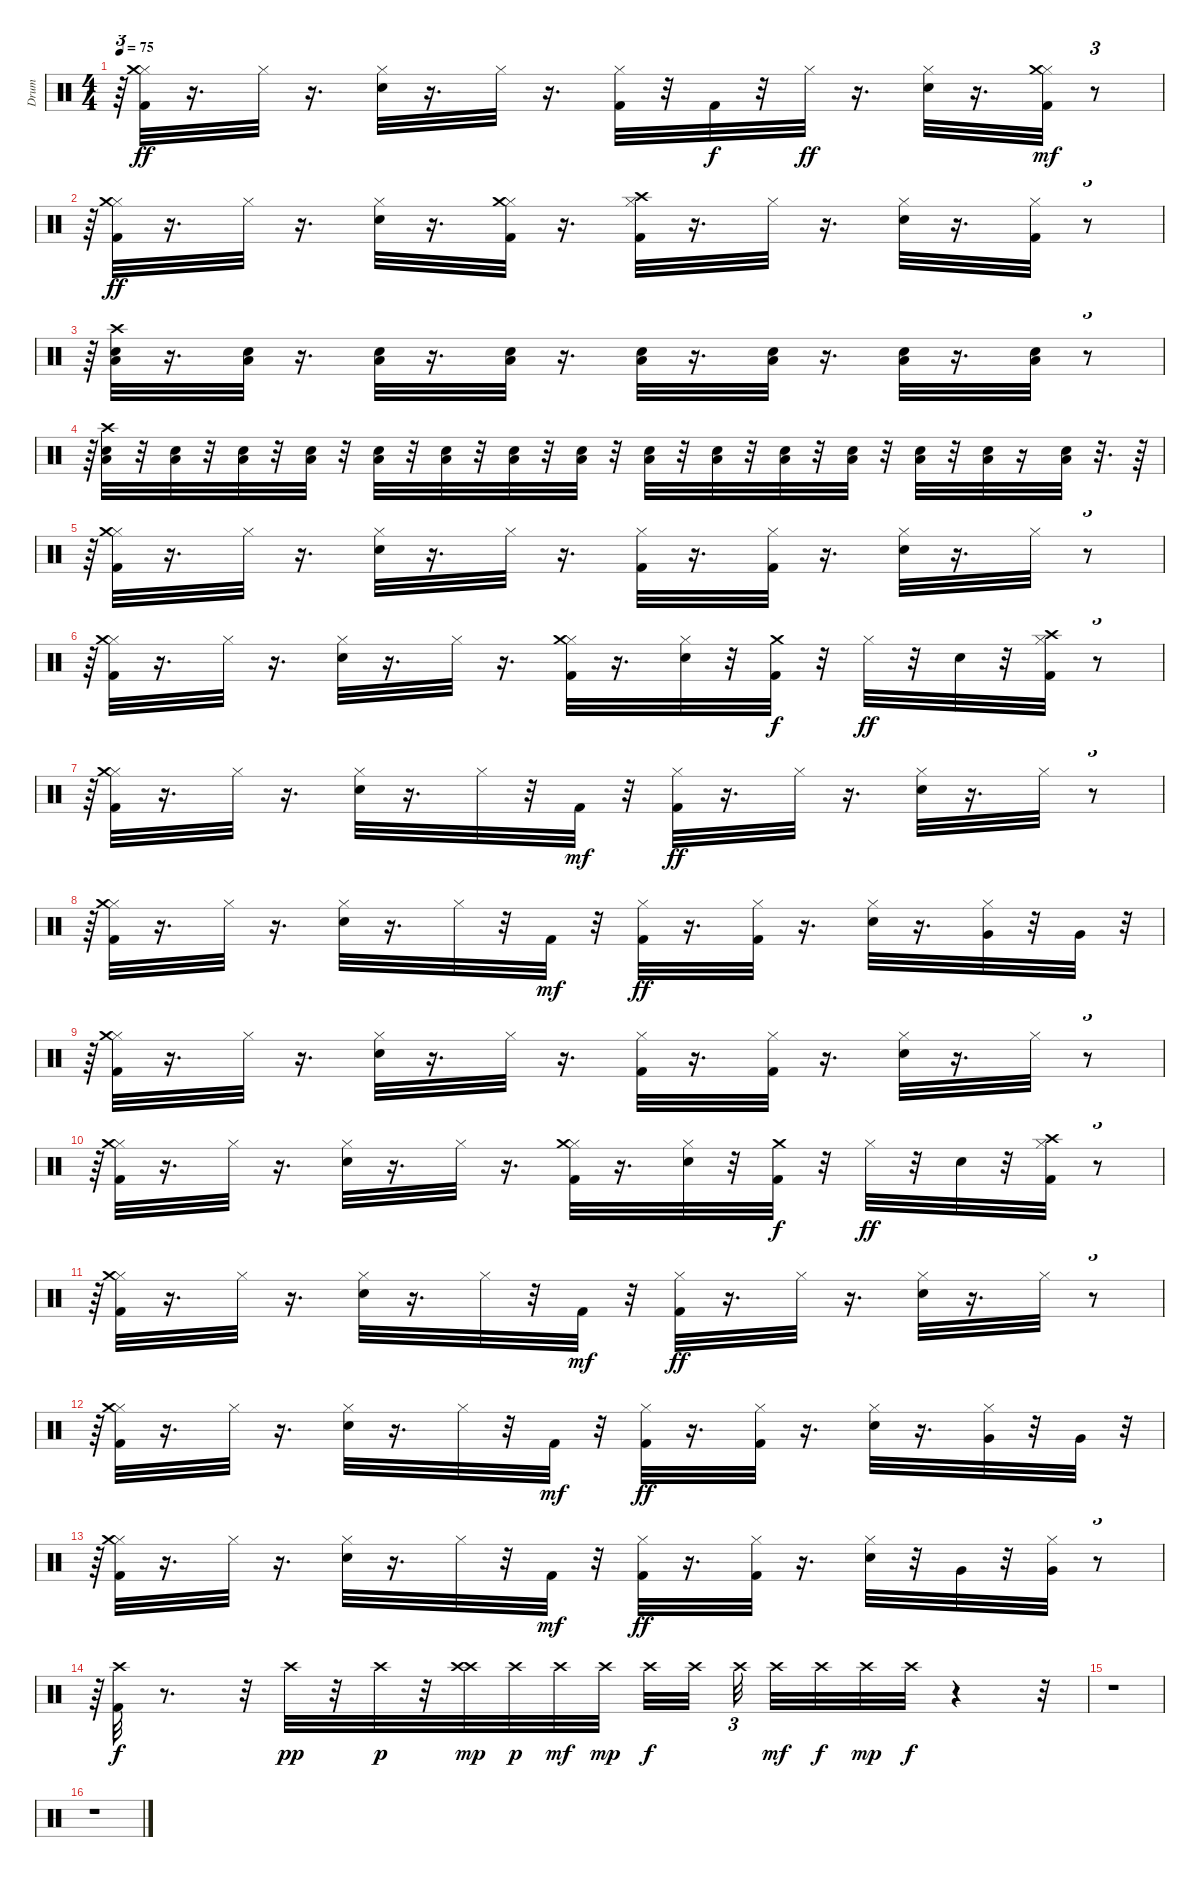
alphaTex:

\track ("Drum" "Drum") {instrument percussion}
\staff {score}
\articulation defaults
\ts (4 4)
\tempo 75
\clef neutral
\ks c
r.64{tu (3 2) dy ff} ("Kick (hit) 2" "Hi-Hat (closed)" "Crash medium (hit)").32 r.16{d} "Hi-Hat (closed)".32 r.16{d} ("Hi-Hat (closed)" "Snare (hit) 2").32 r.16{d} "Hi-Hat (closed)".32 r.16{d} ("Kick (hit) 2" "Hi-Hat (closed)").32 r.32 "Kick (hit) 2".32{dy f} r.32 "Hi-Hat (closed)".32{dy ff} r.16{d} ("Hi-Hat (closed)" "Snare (hit) 2").32 r.16{d} ("Kick (hit) 2" "Hi-Hat (closed)" "Crash medium (hit)").32{dy mf} r.8{tu (3 2)} |
r.64{tu (3 2)} ("Kick (hit) 2" "Hi-Hat (closed)" "Crash medium (hit)").32{dy ff} r.16{d} "Hi-Hat (closed)".32 r.16{d} ("Hi-Hat (closed)" "Snare (hit) 2").32 r.16{d} ("Kick (hit) 2" "Hi-Hat (closed)" "Crash medium (hit)").32 r.16{d} ("Kick (hit) 2" "Hi-Hat (closed)" "Crash high (hit)").32 r.16{d} "Hi-Hat (closed)".32 r.16{d} ("Hi-Hat (closed)" "Snare (hit) 2").32 r.16{d} ("Kick (hit) 2" "Hi-Hat (closed)").32 r.8{tu (3 2)} |
r.64{tu (3 2)} ("Crash high (hit)" "Snare (hit) 2" "Low Tom (hit)").32 r.16{d} ("Snare (hit) 2" "Low Tom (hit)").32 r.16{d} ("Snare (hit) 2" "Low Tom (hit)").32 r.16{d} ("Snare (hit) 2" "Low Tom (hit)").32 r.16{d} ("Snare (hit) 2" "Low Tom (hit)").32 r.16{d} ("Snare (hit) 2" "Low Tom (hit)").32 r.16{d} ("Snare (hit) 2" "Low Tom (hit)").32 r.16{d} ("Snare (hit) 2" "Low Tom (hit)").32 r.8{tu (3 2)} |
r.64{tu (3 2)} ("Crash high (hit)" "Snare (hit) 2" "Low Tom (hit)").32 r.32 ("Snare (hit) 2" "Low Tom (hit)").32 r.32 ("Snare (hit) 2" "Low Tom (hit)").32 r.32 ("Snare (hit) 2" "Low Tom (hit)").32 r.32 ("Snare (hit) 2" "Low Tom (hit)").32 r.32 ("Snare (hit) 2" "Low Tom (hit)").32 r.32 ("Snare (hit) 2" "Low Tom (hit)").32 r.32 ("Snare (hit) 2" "Low Tom (hit)").32 r.32 ("Snare (hit) 2" "Low Tom (hit)").32 r.32 ("Snare (hit) 2" "Low Tom (hit)").32 r.32 ("Snare (hit) 2" "Low Tom (hit)").32 r.32 ("Snare (hit) 2" "Low Tom (hit)").32 r.32 ("Snare (hit) 2" "Low Tom (hit)").32 r.32 ("Snare (hit) 2" "Low Tom (hit)").32 r.16 ("Snare (hit) 2" "Low Tom (hit)").32 r.32{d} r.64 |
r.64{tu (3 2)} ("Kick (hit) 2" "Hi-Hat (closed)" "Crash medium (hit)").32 r.16{d} "Hi-Hat (closed)".32 r.16{d} ("Hi-Hat (closed)" "Snare (hit) 2").32 r.16{d} "Hi-Hat (closed)".32 r.16{d} ("Kick (hit) 2" "Hi-Hat (closed)").32 r.16{d} ("Kick (hit) 2" "Hi-Hat (closed)").32 r.16{d} ("Hi-Hat (closed)" "Snare (hit) 2").32 r.16{d} "Hi-Hat (closed)".32 r.8{tu (3 2)} |
r.64{tu (3 2)} ("Kick (hit) 2" "Hi-Hat (closed)" "Crash medium (hit)").32 r.16{d} "Hi-Hat (closed)".32 r.16{d} ("Hi-Hat (closed)" "Snare (hit) 2").32 r.16{d} "Hi-Hat (closed)".32 r.16{d} ("Kick (hit) 2" "Hi-Hat (closed)" "Crash medium (hit)").32 r.16{d} ("Hi-Hat (closed)" "Snare (hit) 2").32 r.32 ("Kick (hit) 2" "Crash medium (hit)").32{dy f} r.32 "Hi-Hat (closed)".32{dy ff} r.32 "Snare (hit) 2".32 r.32 ("Kick (hit) 2" "Hi-Hat (closed)" "Crash high (hit)").32 r.8{tu (3 2)} |
r.64{tu (3 2)} ("Kick (hit) 2" "Hi-Hat (closed)" "Crash medium (hit)").32 r.16{d} "Hi-Hat (closed)".32 r.16{d} ("Hi-Hat (closed)" "Snare (hit) 2").32 r.16{d} "Hi-Hat (closed)".32 r.32 "Kick (hit) 2".32{dy mf} r.32 ("Kick (hit) 2" "Hi-Hat (closed)").32{dy ff} r.16{d} "Hi-Hat (closed)".32 r.16{d} ("Hi-Hat (closed)" "Snare (hit) 2").32 r.16{d} "Hi-Hat (closed)".32 r.8{tu (3 2)} |
r.64{tu (3 2)} ("Kick (hit) 2" "Hi-Hat (closed)" "Crash medium (hit)").32 r.16{d} "Hi-Hat (closed)".32 r.16{d} ("Hi-Hat (closed)" "Snare (hit) 2").32 r.16{d} "Hi-Hat (closed)".32 r.32 "Kick (hit) 2".32{dy mf} r.32 ("Kick (hit) 2" "Hi-Hat (closed)").32{dy ff} r.16{d} ("Kick (hit) 2" "Hi-Hat (closed)").32 r.16{d} ("Hi-Hat (closed)" "Snare (hit) 2").32 r.16{d} ("Hi-Hat (closed)" "Very Low Tom (hit)").32 r.32 "Very Low Tom (hit)".32 r.32{tu (3 2)} |
r.64{tu (3 2)} ("Kick (hit) 2" "Hi-Hat (closed)" "Crash medium (hit)").32 r.16{d} "Hi-Hat (closed)".32 r.16{d} ("Hi-Hat (closed)" "Snare (hit) 2").32 r.16{d} "Hi-Hat (closed)".32 r.16{d} ("Kick (hit) 2" "Hi-Hat (closed)").32 r.16{d} ("Kick (hit) 2" "Hi-Hat (closed)").32 r.16{d} ("Hi-Hat (closed)" "Snare (hit) 2").32 r.16{d} "Hi-Hat (closed)".32 r.8{tu (3 2)} |
r.64{tu (3 2)} ("Kick (hit) 2" "Hi-Hat (closed)" "Crash medium (hit)").32 r.16{d} "Hi-Hat (closed)".32 r.16{d} ("Hi-Hat (closed)" "Snare (hit) 2").32 r.16{d} "Hi-Hat (closed)".32 r.16{d} ("Kick (hit) 2" "Hi-Hat (closed)" "Crash medium (hit)").32 r.16{d} ("Hi-Hat (closed)" "Snare (hit) 2").32 r.32 ("Kick (hit) 2" "Crash medium (hit)").32{dy f} r.32 "Hi-Hat (closed)".32{dy ff} r.32 "Snare (hit) 2".32 r.32 ("Kick (hit) 2" "Hi-Hat (closed)" "Crash high (hit)").32 r.8{tu (3 2)} |
r.64{tu (3 2)} ("Kick (hit) 2" "Hi-Hat (closed)" "Crash medium (hit)").32 r.16{d} "Hi-Hat (closed)".32 r.16{d} ("Hi-Hat (closed)" "Snare (hit) 2").32 r.16{d} "Hi-Hat (closed)".32 r.32 "Kick (hit) 2".32{dy mf} r.32 ("Kick (hit) 2" "Hi-Hat (closed)").32{dy ff} r.16{d} "Hi-Hat (closed)".32 r.16{d} ("Hi-Hat (closed)" "Snare (hit) 2").32 r.16{d} "Hi-Hat (closed)".32 r.8{tu (3 2)} |
r.64{tu (3 2)} ("Kick (hit) 2" "Hi-Hat (closed)" "Crash medium (hit)").32 r.16{d} "Hi-Hat (closed)".32 r.16{d} ("Hi-Hat (closed)" "Snare (hit) 2").32 r.16{d} "Hi-Hat (closed)".32 r.32 "Kick (hit) 2".32{dy mf} r.32 ("Kick (hit) 2" "Hi-Hat (closed)").32{dy ff} r.16{d} ("Kick (hit) 2" "Hi-Hat (closed)").32 r.16{d} ("Hi-Hat (closed)" "Snare (hit) 2").32 r.16{d} ("Hi-Hat (closed)" "Very Low Tom (hit)").32 r.32 "Very Low Tom (hit)".32 r.32{tu (3 2)} |
r.64{tu (3 2)} ("Kick (hit) 2" "Hi-Hat (closed)" "Crash medium (hit)").32 r.16{d} "Hi-Hat (closed)".32 r.16{d} ("Hi-Hat (closed)" "Snare (hit) 2").32 r.16{d} "Hi-Hat (closed)".32 r.32 "Kick (hit) 2".32{dy mf} r.32 ("Kick (hit) 2" "Hi-Hat (closed)").32{dy ff} r.16{d} ("Kick (hit) 2" "Hi-Hat (closed)").32 r.16{d} ("Hi-Hat (closed)" "Snare (hit) 2").32 r.32 "Very Low Tom (hit)".32 r.32 ("Hi-Hat (closed)" "Very Low Tom (hit)").32 r.8{tu (3 2)} |
r.64{tu (3 2)} ("Kick (hit) 2" "Crash high (hit)").32{dy f} r.8{d} r.32 "Crash high (hit)".32{dy pp} r.32 "Crash high (hit)".32{dy p} r.32 ("Crash high (hit)" "Crash high (hit)").32{dy mp} "Crash high (hit)".32{dy p} "Crash high (hit)".32{dy mf} "Crash high (hit)".32{dy mp} "Crash high (hit)".32{dy f} "Crash high (hit)".32{beam splitsecondary} "Crash high (hit)".32{tu (3 2) beam splitsecondary} "Crash high (hit)".32{dy mf} "Crash high (hit)".32{dy f} "Crash high (hit)".32{dy mp} "Crash high (hit)".32{dy f} r.4 r.32 |
r.1 |
r.1
